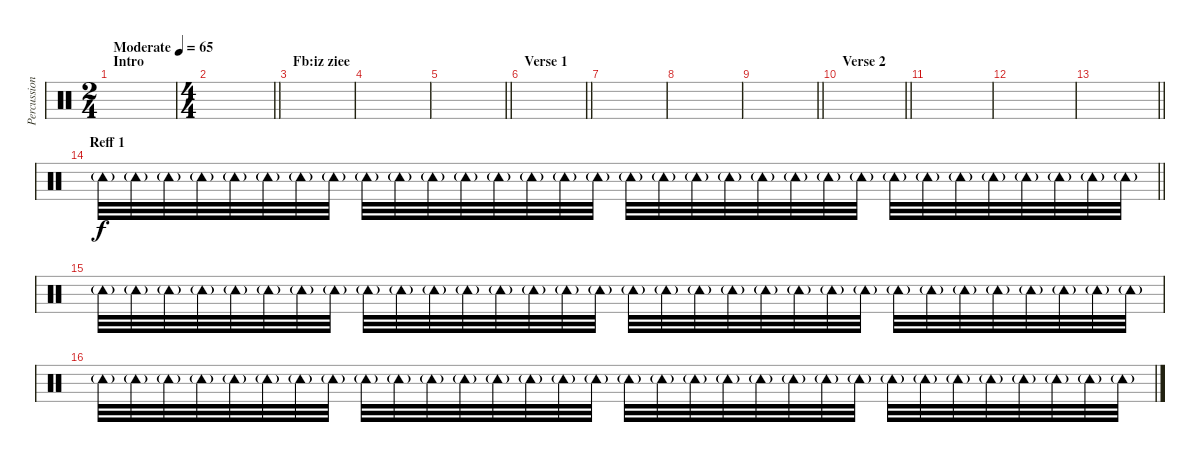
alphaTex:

\track ("Percussion 3 (Tamb)" "Percussion") {instrument percussion}
\staff {score}
\articulation defaults
\ts (2 4)
\section ("" "Intro")
\tempo (65 "Moderate")
\clef neutral
\ks c
|
\ts (4 4)
\barLineRight lightlight
|
\section ("" "Fb:iz ziee")
|
|
\barLineRight lightlight
|
\section ("" "Verse 1")
\barLineRight lightlight
|
|
|
\barLineRight lightlight
|
\section ("" "Verse 2")
\barLineRight lightlight
|
|
|
\barLineRight lightlight
|
\section ("" "Reff 1")
\barLineRight lightlight "Tambourine (hit)"{g}.32 "Tambourine (hit)"{g}.32 "Tambourine (hit)"{g}.32 "Tambourine (hit)"{g}.32 "Tambourine (hit)"{g}.32 "Tambourine (hit)"{g}.32 "Tambourine (hit)"{g}.32 "Tambourine (hit)"{g}.32 "Tambourine (hit)"{g}.32 "Tambourine (hit)"{g}.32 "Tambourine (hit)"{g}.32 "Tambourine (hit)"{g}.32 "Tambourine (hit)"{g}.32 "Tambourine (hit)"{g}.32 "Tambourine (hit)"{g}.32 "Tambourine (hit)"{g}.32 "Tambourine (hit)"{g}.32 "Tambourine (hit)"{g}.32 "Tambourine (hit)"{g}.32 "Tambourine (hit)"{g}.32 "Tambourine (hit)"{g}.32 "Tambourine (hit)"{g}.32 "Tambourine (hit)"{g}.32 "Tambourine (hit)"{g}.32 "Tambourine (hit)"{g}.32 "Tambourine (hit)"{g}.32 "Tambourine (hit)"{g}.32 "Tambourine (hit)"{g}.32 "Tambourine (hit)"{g}.32 "Tambourine (hit)"{g}.32 "Tambourine (hit)"{g}.32 "Tambourine (hit)"{g}.32
|
"Tambourine (hit)"{g}.32 "Tambourine (hit)"{g}.32 "Tambourine (hit)"{g}.32 "Tambourine (hit)"{g}.32 "Tambourine (hit)"{g}.32 "Tambourine (hit)"{g}.32 "Tambourine (hit)"{g}.32 "Tambourine (hit)"{g}.32 "Tambourine (hit)"{g}.32 "Tambourine (hit)"{g}.32 "Tambourine (hit)"{g}.32 "Tambourine (hit)"{g}.32 "Tambourine (hit)"{g}.32 "Tambourine (hit)"{g}.32 "Tambourine (hit)"{g}.32 "Tambourine (hit)"{g}.32 "Tambourine (hit)"{g}.32 "Tambourine (hit)"{g}.32 "Tambourine (hit)"{g}.32 "Tambourine (hit)"{g}.32 "Tambourine (hit)"{g}.32 "Tambourine (hit)"{g}.32 "Tambourine (hit)"{g}.32 "Tambourine (hit)"{g}.32 "Tambourine (hit)"{g}.32 "Tambourine (hit)"{g}.32 "Tambourine (hit)"{g}.32 "Tambourine (hit)"{g}.32 "Tambourine (hit)"{g}.32 "Tambourine (hit)"{g}.32 "Tambourine (hit)"{g}.32 "Tambourine (hit)"{g}.32 |
"Tambourine (hit)"{g}.32 "Tambourine (hit)"{g}.32 "Tambourine (hit)"{g}.32 "Tambourine (hit)"{g}.32 "Tambourine (hit)"{g}.32 "Tambourine (hit)"{g}.32 "Tambourine (hit)"{g}.32 "Tambourine (hit)"{g}.32 "Tambourine (hit)"{g}.32 "Tambourine (hit)"{g}.32 "Tambourine (hit)"{g}.32 "Tambourine (hit)"{g}.32 "Tambourine (hit)"{g}.32 "Tambourine (hit)"{g}.32 "Tambourine (hit)"{g}.32 "Tambourine (hit)"{g}.32 "Tambourine (hit)"{g}.32 "Tambourine (hit)"{g}.32 "Tambourine (hit)"{g}.32 "Tambourine (hit)"{g}.32 "Tambourine (hit)"{g}.32 "Tambourine (hit)"{g}.32 "Tambourine (hit)"{g}.32 "Tambourine (hit)"{g}.32 "Tambourine (hit)"{g}.32 "Tambourine (hit)"{g}.32 "Tambourine (hit)"{g}.32 "Tambourine (hit)"{g}.32 "Tambourine (hit)"{g}.32 "Tambourine (hit)"{g}.32 "Tambourine (hit)"{g}.32 "Tambourine (hit)"{g}.32
